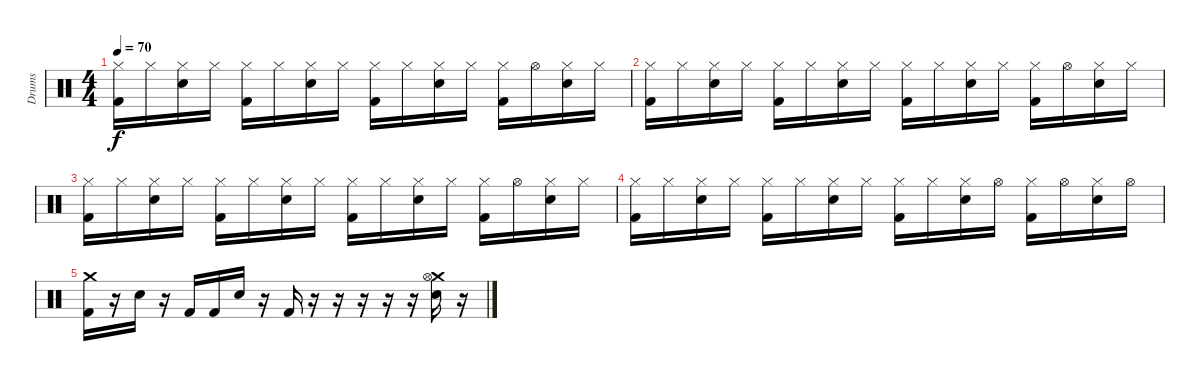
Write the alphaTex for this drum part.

\track ("Drums" "Drums") {instrument percussion}
\staff {score}
\articulation defaults
\ts (4 4)
\tempo 70
\clef neutral
\ks c
("Kick (hit) 2" "Hi-Hat (closed)").16{dy f} "Hi-Hat (closed)".16 ("Snare (hit) 2" "Hi-Hat (closed)").16 "Hi-Hat (closed)".16 ("Kick (hit) 2" "Hi-Hat (closed)").16 "Hi-Hat (closed)".16 ("Snare (hit) 2" "Hi-Hat (closed)").16 "Hi-Hat (closed)".16 ("Kick (hit) 2" "Hi-Hat (closed)").16 "Hi-Hat (closed)".16 ("Snare (hit) 2" "Hi-Hat (closed)").16 "Hi-Hat (closed)".16 ("Kick (hit) 2" "Hi-Hat (closed)").16 "Hi-Hat (open)".16 ("Snare (hit) 2" "Hi-Hat (closed)").16 "Hi-Hat (closed)".16 |
("Kick (hit) 2" "Hi-Hat (closed)").16 "Hi-Hat (closed)".16 ("Snare (hit) 2" "Hi-Hat (closed)").16 "Hi-Hat (closed)".16 ("Kick (hit) 2" "Hi-Hat (closed)").16 "Hi-Hat (closed)".16 ("Snare (hit) 2" "Hi-Hat (closed)").16 "Hi-Hat (closed)".16 ("Kick (hit) 2" "Hi-Hat (closed)").16 "Hi-Hat (closed)".16 ("Snare (hit) 2" "Hi-Hat (closed)").16 "Hi-Hat (closed)".16 ("Kick (hit) 2" "Hi-Hat (closed)").16 "Hi-Hat (open)".16 ("Snare (hit) 2" "Hi-Hat (closed)").16 "Hi-Hat (closed)".16 |
("Kick (hit) 2" "Hi-Hat (closed)").16 "Hi-Hat (closed)".16 ("Snare (hit) 2" "Hi-Hat (closed)").16 "Hi-Hat (closed)".16 ("Kick (hit) 2" "Hi-Hat (closed)").16 "Hi-Hat (closed)".16 ("Snare (hit) 2" "Hi-Hat (closed)").16 "Hi-Hat (closed)".16 ("Kick (hit) 2" "Hi-Hat (closed)").16 "Hi-Hat (closed)".16 ("Snare (hit) 2" "Hi-Hat (closed)").16 "Hi-Hat (closed)".16 ("Kick (hit) 2" "Hi-Hat (closed)").16 "Hi-Hat (open)".16 ("Snare (hit) 2" "Hi-Hat (closed)").16 "Hi-Hat (closed)".16 |
("Kick (hit) 2" "Hi-Hat (closed)").16 "Hi-Hat (closed)".16 ("Snare (hit) 2" "Hi-Hat (closed)").16 "Hi-Hat (closed)".16 ("Kick (hit) 2" "Hi-Hat (closed)").16 "Hi-Hat (closed)".16 ("Snare (hit) 2" "Hi-Hat (closed)").16 "Hi-Hat (closed)".16 ("Kick (hit) 2" "Hi-Hat (closed)").16 "Hi-Hat (closed)".16 ("Snare (hit) 2" "Hi-Hat (closed)").16 "Hi-Hat (open)".16 ("Kick (hit) 2" "Hi-Hat (closed)").16 "Hi-Hat (open)".16 ("Snare (hit) 2" "Hi-Hat (closed)").16 "Hi-Hat (open)".16 |
("Kick (hit) 2" "Crash medium (hit)").16 r.16 "Snare (hit) 2".16 r.16 "Kick (hit) 2".16 "Kick (hit) 2".16 "Snare (hit) 2".16 r.16 "Kick (hit) 2".16 r.16 r.16 r.16 r.16 r.16 ("Snare (hit) 2" "Crash medium (hit)" "Hi-Hat (open)").16 r.16
